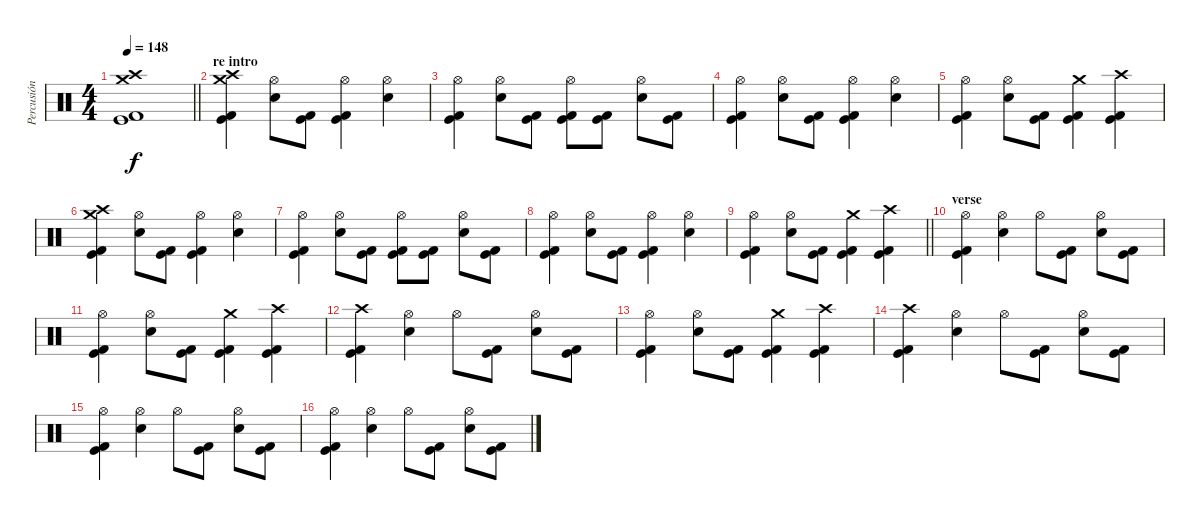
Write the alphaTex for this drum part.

\track ("Percusión" "Percusión") {instrument percussion}
\staff {score}
\articulation defaults
\ts (4 4)
\tempo 148
\clef neutral
\barLineRight lightlight
\ks c
("Crash high (hit)" "Crash medium (hit)" "Kick (hit)" "Kick (hit) 2").1{dy f} |
\section ("" "re intro")
("Crash high (hit)" "Crash medium (hit)" "Kick (hit)" "Kick (hit) 2").4 ("Hi-Hat (open)" "Electric Snare (hit)").8 ("Kick (hit)" "Kick (hit) 2").8 ("Hi-Hat (open)" "Kick (hit)" "Kick (hit) 2").4 ("Hi-Hat (open)" "Electric Snare (hit)").4 |
("Hi-Hat (open)" "Kick (hit)" "Kick (hit) 2").4 ("Hi-Hat (open)" "Electric Snare (hit)").8 ("Kick (hit)" "Kick (hit) 2").8 ("Hi-Hat (open)" "Kick (hit)" "Kick (hit) 2").8 ("Kick (hit)" "Kick (hit) 2").8 ("Hi-Hat (open)" "Electric Snare (hit)").8 ("Kick (hit)" "Kick (hit) 2").8 |
("Hi-Hat (open)" "Kick (hit)" "Kick (hit) 2").4 ("Hi-Hat (open)" "Electric Snare (hit)").8 ("Kick (hit)" "Kick (hit) 2").8 ("Hi-Hat (open)" "Kick (hit)" "Kick (hit) 2").4 ("Hi-Hat (open)" "Electric Snare (hit)").4 |
("Hi-Hat (open)" "Kick (hit)" "Kick (hit) 2").4 ("Hi-Hat (open)" "Electric Snare (hit)").8 ("Kick (hit)" "Kick (hit) 2").8 ("Crash medium (hit)" "Kick (hit)" "Kick (hit) 2").4 ("Crash high (hit)" "Kick (hit)" "Kick (hit) 2").4 |
("Crash high (hit)" "Crash medium (hit)" "Kick (hit)" "Kick (hit) 2").4 ("Hi-Hat (open)" "Electric Snare (hit)").8 ("Kick (hit)" "Kick (hit) 2").8 ("Hi-Hat (open)" "Kick (hit)" "Kick (hit) 2").4 ("Hi-Hat (open)" "Electric Snare (hit)").4 |
("Hi-Hat (open)" "Kick (hit)" "Kick (hit) 2").4 ("Hi-Hat (open)" "Electric Snare (hit)").8 ("Kick (hit)" "Kick (hit) 2").8 ("Hi-Hat (open)" "Kick (hit)" "Kick (hit) 2").8 ("Kick (hit)" "Kick (hit) 2").8 ("Hi-Hat (open)" "Electric Snare (hit)").8 ("Kick (hit)" "Kick (hit) 2").8 |
("Hi-Hat (open)" "Kick (hit)" "Kick (hit) 2").4 ("Hi-Hat (open)" "Electric Snare (hit)").8 ("Kick (hit)" "Kick (hit) 2").8 ("Hi-Hat (open)" "Kick (hit)" "Kick (hit) 2").4 ("Hi-Hat (open)" "Electric Snare (hit)").4 |
\barLineRight lightlight
("Hi-Hat (open)" "Kick (hit)" "Kick (hit) 2").4 ("Hi-Hat (open)" "Electric Snare (hit)").8 ("Kick (hit)" "Kick (hit) 2").8 ("Crash medium (hit)" "Kick (hit)" "Kick (hit) 2").4 ("Crash high (hit)" "Kick (hit)" "Kick (hit) 2").4 |
\section ("" "verse")
("Hi-Hat (open)" "Kick (hit)" "Kick (hit) 2").4 ("Hi-Hat (open)" "Electric Snare (hit)").4 "Hi-Hat (open)".8 ("Kick (hit)" "Kick (hit) 2").8 ("Hi-Hat (open)" "Electric Snare (hit)").8 ("Kick (hit)" "Kick (hit) 2").8 |
("Hi-Hat (open)" "Kick (hit)" "Kick (hit) 2").4 ("Hi-Hat (open)" "Electric Snare (hit)").8 ("Kick (hit)" "Kick (hit) 2").8 ("Crash medium (hit)" "Kick (hit)" "Kick (hit) 2").4 ("Crash high (hit)" "Kick (hit)" "Kick (hit) 2").4 |
("Crash high (hit)" "Kick (hit)" "Kick (hit) 2").4 ("Hi-Hat (open)" "Electric Snare (hit)").4 "Hi-Hat (open)".8 ("Kick (hit)" "Kick (hit) 2").8 ("Hi-Hat (open)" "Electric Snare (hit)").8 ("Kick (hit)" "Kick (hit) 2").8 |
("Hi-Hat (open)" "Kick (hit)" "Kick (hit) 2").4 ("Hi-Hat (open)" "Electric Snare (hit)").8 ("Kick (hit)" "Kick (hit) 2").8 ("Crash medium (hit)" "Kick (hit)" "Kick (hit) 2").4 ("Crash high (hit)" "Kick (hit)" "Kick (hit) 2").4 |
("Crash high (hit)" "Kick (hit)" "Kick (hit) 2").4 ("Hi-Hat (open)" "Electric Snare (hit)").4 "Hi-Hat (open)".8 ("Kick (hit)" "Kick (hit) 2").8 ("Hi-Hat (open)" "Electric Snare (hit)").8 ("Kick (hit)" "Kick (hit) 2").8 |
("Hi-Hat (open)" "Kick (hit)" "Kick (hit) 2").4 ("Hi-Hat (open)" "Electric Snare (hit)").4 "Hi-Hat (open)".8 ("Kick (hit)" "Kick (hit) 2").8 ("Hi-Hat (open)" "Electric Snare (hit)").8 ("Kick (hit)" "Kick (hit) 2").8 |
("Hi-Hat (open)" "Kick (hit)" "Kick (hit) 2").4 ("Hi-Hat (open)" "Electric Snare (hit)").4 "Hi-Hat (open)".8 ("Kick (hit)" "Kick (hit) 2").8 ("Hi-Hat (open)" "Electric Snare (hit)").8 ("Kick (hit)" "Kick (hit) 2").8
